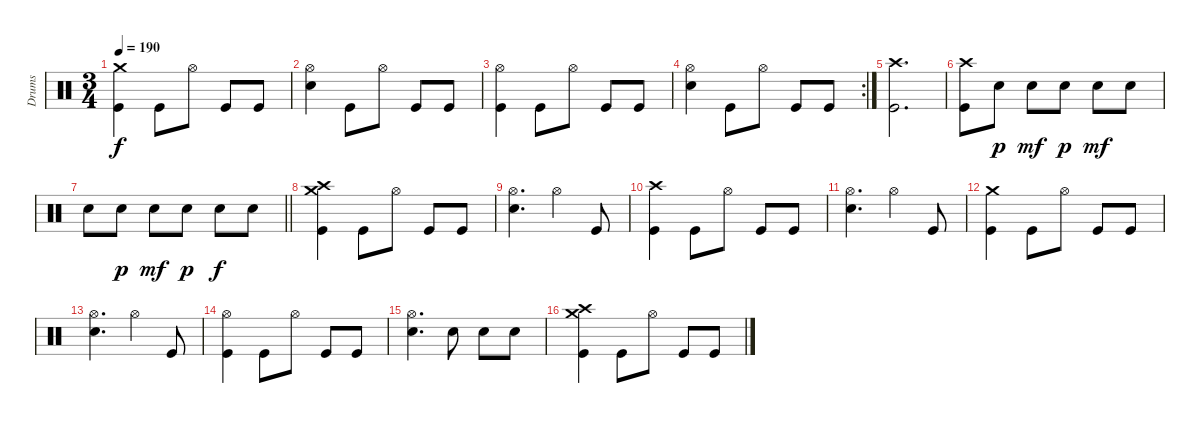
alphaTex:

\track ("Drums" "Drums") {instrument percussion}
\staff {score}
\articulation defaults
\ts (3 4)
\tempo 190
\clef neutral
\ks c
("Crash medium (hit)" "Kick (hit)").4{dy f} "Kick (hit)".8 "Hi-Hat (open)".8 "Kick (hit)".8 "Kick (hit)".8 |
("Hi-Hat (open)" "Snare (hit) 2").4 "Kick (hit)".8 "Hi-Hat (open)".8 "Kick (hit)".8 "Kick (hit)".8 |
("Hi-Hat (open)" "Kick (hit)").4 "Kick (hit)".8 "Hi-Hat (open)".8 "Kick (hit)".8 "Kick (hit)".8 |
\rc 2
("Hi-Hat (open)" "Snare (hit) 2").4 "Kick (hit)".8 "Hi-Hat (open)".8 "Kick (hit)".8 "Kick (hit)".8 |
("Crash high (hit)" "Kick (hit)").2{d} |
("Crash high (hit)" "Kick (hit)").8 "Snare (hit) 2".8{dy p} "Snare (hit) 2".8{dy mf} "Snare (hit) 2".8{dy p} "Snare (hit) 2".8{dy mf} "Snare (hit) 2".8 |
\barLineRight lightlight "Snare (hit) 2".8 "Snare (hit) 2".8{dy p} "Snare (hit) 2".8{dy mf} "Snare (hit) 2".8{dy p} "Snare (hit) 2".8{dy f} "Snare (hit) 2".8
|
("Crash high (hit)" "Crash medium (hit)" "Kick (hit)").4 "Kick (hit)".8 "Hi-Hat (open)".8 "Kick (hit)".8 "Kick (hit)".8 |
("Hi-Hat (open)" "Snare (hit) 2").4{d} "Hi-Hat (open)".4 "Kick (hit)".8 |
("Crash high (hit)" "Kick (hit)").4 "Kick (hit)".8 "Hi-Hat (open)".8 "Kick (hit)".8 "Kick (hit)".8 |
("Hi-Hat (open)" "Snare (hit) 2").4{d} "Hi-Hat (open)".4 "Kick (hit)".8 |
("Crash medium (hit)" "Kick (hit)").4 "Kick (hit)".8 "Hi-Hat (open)".8 "Kick (hit)".8 "Kick (hit)".8 |
("Hi-Hat (open)" "Snare (hit) 2").4{d} "Hi-Hat (open)".4 "Kick (hit)".8 |
("Hi-Hat (open)" "Kick (hit)").4 "Kick (hit)".8 "Hi-Hat (open)".8 "Kick (hit)".8 "Kick (hit)".8 |
("Hi-Hat (open)" "Snare (hit) 2").4{d} "Snare (hit) 2".8 "Snare (hit) 2".8 "Snare (hit) 2".8 |
("Crash high (hit)" "Crash medium (hit)" "Kick (hit)").4 "Kick (hit)".8 "Hi-Hat (open)".8 "Kick (hit)".8 "Kick (hit)".8
